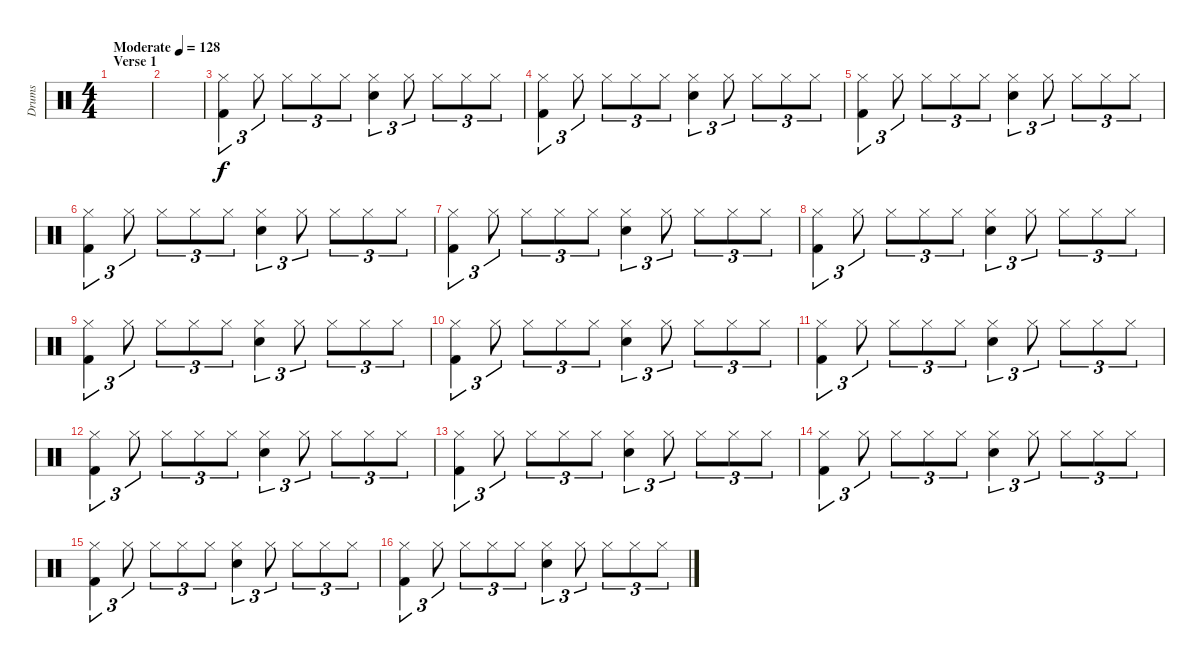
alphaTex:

\track ("Drums" "Drums") {instrument percussion}
\staff {score}
\articulation defaults
\ts (4 4)
\section ("" "Verse 1")
\tempo (128 "Moderate")
\clef neutral
\ks c
|
|
("Hi-Hat (closed)" "Kick (hit) 2").4{tu (3 2)} "Hi-Hat (closed)".8{tu (3 2)} "Hi-Hat (closed)".8{tu (3 2)} "Hi-Hat (closed)".8{tu (3 2)} "Hi-Hat (closed)".8{tu (3 2)} ("Hi-Hat (closed)" "Electric Snare (hit)").4{tu (3 2)} "Hi-Hat (closed)".8{tu (3 2)} "Hi-Hat (closed)".8{tu (3 2)} "Hi-Hat (closed)".8{tu (3 2)} "Hi-Hat (closed)".8{tu (3 2)} |
("Hi-Hat (closed)" "Kick (hit) 2").4{tu (3 2)} "Hi-Hat (closed)".8{tu (3 2)} "Hi-Hat (closed)".8{tu (3 2)} "Hi-Hat (closed)".8{tu (3 2)} "Hi-Hat (closed)".8{tu (3 2)} ("Hi-Hat (closed)" "Electric Snare (hit)").4{tu (3 2)} "Hi-Hat (closed)".8{tu (3 2)} "Hi-Hat (closed)".8{tu (3 2)} "Hi-Hat (closed)".8{tu (3 2)} "Hi-Hat (closed)".8{tu (3 2)} |
("Hi-Hat (closed)" "Kick (hit) 2").4{tu (3 2)} "Hi-Hat (closed)".8{tu (3 2)} "Hi-Hat (closed)".8{tu (3 2)} "Hi-Hat (closed)".8{tu (3 2)} "Hi-Hat (closed)".8{tu (3 2)} ("Hi-Hat (closed)" "Electric Snare (hit)").4{tu (3 2)} "Hi-Hat (closed)".8{tu (3 2)} "Hi-Hat (closed)".8{tu (3 2)} "Hi-Hat (closed)".8{tu (3 2)} "Hi-Hat (closed)".8{tu (3 2)} |
("Hi-Hat (closed)" "Kick (hit) 2").4{tu (3 2)} "Hi-Hat (closed)".8{tu (3 2)} "Hi-Hat (closed)".8{tu (3 2)} "Hi-Hat (closed)".8{tu (3 2)} "Hi-Hat (closed)".8{tu (3 2)} ("Hi-Hat (closed)" "Electric Snare (hit)").4{tu (3 2)} "Hi-Hat (closed)".8{tu (3 2)} "Hi-Hat (closed)".8{tu (3 2)} "Hi-Hat (closed)".8{tu (3 2)} "Hi-Hat (closed)".8{tu (3 2)} |
("Hi-Hat (closed)" "Kick (hit) 2").4{tu (3 2)} "Hi-Hat (closed)".8{tu (3 2)} "Hi-Hat (closed)".8{tu (3 2)} "Hi-Hat (closed)".8{tu (3 2)} "Hi-Hat (closed)".8{tu (3 2)} ("Hi-Hat (closed)" "Electric Snare (hit)").4{tu (3 2)} "Hi-Hat (closed)".8{tu (3 2)} "Hi-Hat (closed)".8{tu (3 2)} "Hi-Hat (closed)".8{tu (3 2)} "Hi-Hat (closed)".8{tu (3 2)} |
("Hi-Hat (closed)" "Kick (hit) 2").4{tu (3 2)} "Hi-Hat (closed)".8{tu (3 2)} "Hi-Hat (closed)".8{tu (3 2)} "Hi-Hat (closed)".8{tu (3 2)} "Hi-Hat (closed)".8{tu (3 2)} ("Hi-Hat (closed)" "Electric Snare (hit)").4{tu (3 2)} "Hi-Hat (closed)".8{tu (3 2)} "Hi-Hat (closed)".8{tu (3 2)} "Hi-Hat (closed)".8{tu (3 2)} "Hi-Hat (closed)".8{tu (3 2)} |
("Hi-Hat (closed)" "Kick (hit) 2").4{tu (3 2)} "Hi-Hat (closed)".8{tu (3 2)} "Hi-Hat (closed)".8{tu (3 2)} "Hi-Hat (closed)".8{tu (3 2)} "Hi-Hat (closed)".8{tu (3 2)} ("Hi-Hat (closed)" "Electric Snare (hit)").4{tu (3 2)} "Hi-Hat (closed)".8{tu (3 2)} "Hi-Hat (closed)".8{tu (3 2)} "Hi-Hat (closed)".8{tu (3 2)} "Hi-Hat (closed)".8{tu (3 2)} |
("Hi-Hat (closed)" "Kick (hit) 2").4{tu (3 2)} "Hi-Hat (closed)".8{tu (3 2)} "Hi-Hat (closed)".8{tu (3 2)} "Hi-Hat (closed)".8{tu (3 2)} "Hi-Hat (closed)".8{tu (3 2)} ("Hi-Hat (closed)" "Electric Snare (hit)").4{tu (3 2)} "Hi-Hat (closed)".8{tu (3 2)} "Hi-Hat (closed)".8{tu (3 2)} "Hi-Hat (closed)".8{tu (3 2)} "Hi-Hat (closed)".8{tu (3 2)} |
("Hi-Hat (closed)" "Kick (hit) 2").4{tu (3 2)} "Hi-Hat (closed)".8{tu (3 2)} "Hi-Hat (closed)".8{tu (3 2)} "Hi-Hat (closed)".8{tu (3 2)} "Hi-Hat (closed)".8{tu (3 2)} ("Hi-Hat (closed)" "Electric Snare (hit)").4{tu (3 2)} "Hi-Hat (closed)".8{tu (3 2)} "Hi-Hat (closed)".8{tu (3 2)} "Hi-Hat (closed)".8{tu (3 2)} "Hi-Hat (closed)".8{tu (3 2)} |
("Hi-Hat (closed)" "Kick (hit) 2").4{tu (3 2)} "Hi-Hat (closed)".8{tu (3 2)} "Hi-Hat (closed)".8{tu (3 2)} "Hi-Hat (closed)".8{tu (3 2)} "Hi-Hat (closed)".8{tu (3 2)} ("Hi-Hat (closed)" "Electric Snare (hit)").4{tu (3 2)} "Hi-Hat (closed)".8{tu (3 2)} "Hi-Hat (closed)".8{tu (3 2)} "Hi-Hat (closed)".8{tu (3 2)} "Hi-Hat (closed)".8{tu (3 2)} |
("Hi-Hat (closed)" "Kick (hit) 2").4{tu (3 2)} "Hi-Hat (closed)".8{tu (3 2)} "Hi-Hat (closed)".8{tu (3 2)} "Hi-Hat (closed)".8{tu (3 2)} "Hi-Hat (closed)".8{tu (3 2)} ("Hi-Hat (closed)" "Electric Snare (hit)").4{tu (3 2)} "Hi-Hat (closed)".8{tu (3 2)} "Hi-Hat (closed)".8{tu (3 2)} "Hi-Hat (closed)".8{tu (3 2)} "Hi-Hat (closed)".8{tu (3 2)} |
("Hi-Hat (closed)" "Kick (hit) 2").4{tu (3 2)} "Hi-Hat (closed)".8{tu (3 2)} "Hi-Hat (closed)".8{tu (3 2)} "Hi-Hat (closed)".8{tu (3 2)} "Hi-Hat (closed)".8{tu (3 2)} ("Hi-Hat (closed)" "Electric Snare (hit)").4{tu (3 2)} "Hi-Hat (closed)".8{tu (3 2)} "Hi-Hat (closed)".8{tu (3 2)} "Hi-Hat (closed)".8{tu (3 2)} "Hi-Hat (closed)".8{tu (3 2)} |
("Hi-Hat (closed)" "Kick (hit) 2").4{tu (3 2)} "Hi-Hat (closed)".8{tu (3 2)} "Hi-Hat (closed)".8{tu (3 2)} "Hi-Hat (closed)".8{tu (3 2)} "Hi-Hat (closed)".8{tu (3 2)} ("Hi-Hat (closed)" "Electric Snare (hit)").4{tu (3 2)} "Hi-Hat (closed)".8{tu (3 2)} "Hi-Hat (closed)".8{tu (3 2)} "Hi-Hat (closed)".8{tu (3 2)} "Hi-Hat (closed)".8{tu (3 2)} |
("Hi-Hat (closed)" "Kick (hit) 2").4{tu (3 2)} "Hi-Hat (closed)".8{tu (3 2)} "Hi-Hat (closed)".8{tu (3 2)} "Hi-Hat (closed)".8{tu (3 2)} "Hi-Hat (closed)".8{tu (3 2)} ("Hi-Hat (closed)" "Electric Snare (hit)").4{tu (3 2)} "Hi-Hat (closed)".8{tu (3 2)} "Hi-Hat (closed)".8{tu (3 2)} "Hi-Hat (closed)".8{tu (3 2)} "Hi-Hat (closed)".8{tu (3 2)}
